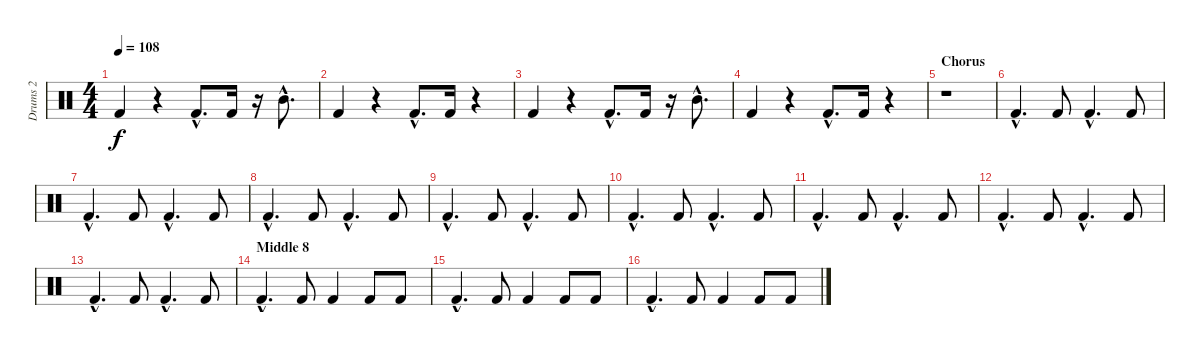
\track ("Drums 2" "Drums 2") {instrument percussion}
\staff {score}
\articulation defaults
\ts (4 4)
\tempo 108
\clef neutral
\ks c "Kick (hit) 2".4{dy f}
r.4 "Kick (hit) 2"{hac}.8{d} "Kick (hit) 2".16 r.16 "Mid Tom (hit)"{hac}.8{d} |
"Kick (hit) 2".4 r.4 "Kick (hit) 2"{hac}.8{d} "Kick (hit) 2".16 r.4 |
"Kick (hit) 2".4 r.4 "Kick (hit) 2"{hac}.8{d} "Kick (hit) 2".16 r.16 "Mid Tom (hit)"{hac}.8{d} |
"Kick (hit) 2".4 r.4 "Kick (hit) 2"{hac}.8{d} "Kick (hit) 2".16 r.4 |
\section ("" "Chorus")
r.1 |
"Kick (hit) 2"{hac}.4{d} "Kick (hit) 2".8 "Kick (hit) 2"{hac}.4{d} "Kick (hit) 2".8 |
"Kick (hit) 2"{hac}.4{d} "Kick (hit) 2".8 "Kick (hit) 2"{hac}.4{d} "Kick (hit) 2".8 |
"Kick (hit) 2"{hac}.4{d} "Kick (hit) 2".8 "Kick (hit) 2"{hac}.4{d} "Kick (hit) 2".8 |
"Kick (hit) 2"{hac}.4{d} "Kick (hit) 2".8 "Kick (hit) 2"{hac}.4{d} "Kick (hit) 2".8 |
"Kick (hit) 2"{hac}.4{d} "Kick (hit) 2".8 "Kick (hit) 2"{hac}.4{d} "Kick (hit) 2".8 |
"Kick (hit) 2"{hac}.4{d} "Kick (hit) 2".8 "Kick (hit) 2"{hac}.4{d} "Kick (hit) 2".8 |
"Kick (hit) 2"{hac}.4{d} "Kick (hit) 2".8 "Kick (hit) 2"{hac}.4{d} "Kick (hit) 2".8 |
"Kick (hit) 2"{hac}.4{d} "Kick (hit) 2".8 "Kick (hit) 2"{hac}.4{d} "Kick (hit) 2".8 |
\section ("" "Middle 8")
"Kick (hit) 2"{hac}.4{d} "Kick (hit) 2".8 "Kick (hit) 2".4 "Kick (hit) 2".8 "Kick (hit) 2".8 |
"Kick (hit) 2"{hac}.4{d} "Kick (hit) 2".8 "Kick (hit) 2".4 "Kick (hit) 2".8 "Kick (hit) 2".8 |
"Kick (hit) 2"{hac}.4{d} "Kick (hit) 2".8 "Kick (hit) 2".4 "Kick (hit) 2".8 "Kick (hit) 2".8
